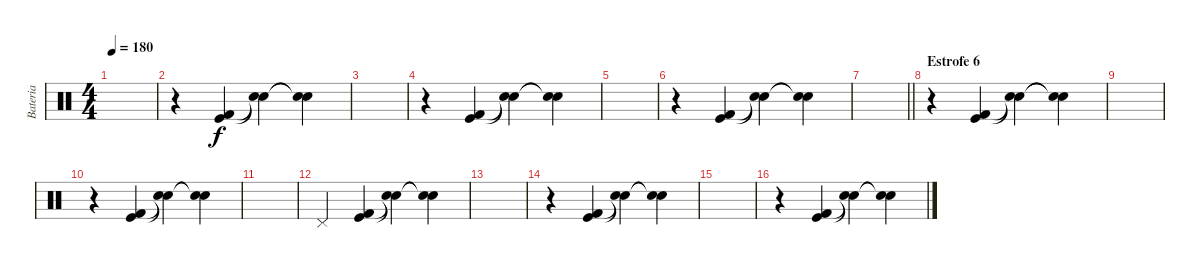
\track ("Bateria" "Bateria") {instrument percussion}
\staff {score}
\articulation defaults
\ts (4 4)
\tempo 180
\clef neutral
\ks c
|
r.4 ("Kick (hit) 2" "Kick (hit)").4 ("Snare (hit)"{t} "Snare (hit)"{t}).4 ("Snare (hit)"{t} "Snare (hit)"{t}).4 |
|
r.4 ("Kick (hit) 2" "Kick (hit)").4 ("Snare (hit)"{t} "Snare (hit)"{t}).4 ("Snare (hit)"{t} "Snare (hit)"{t}).4 |
|
r.4 ("Kick (hit) 2" "Kick (hit)").4 ("Snare (hit)"{t} "Snare (hit)"{t}).4 ("Snare (hit)"{t} "Snare (hit)"{t}).4 |
\barLineRight lightlight
|
\section ("" "Estrofe 6")
r.4 ("Kick (hit) 2" "Kick (hit)").4 ("Snare (hit)"{t} "Snare (hit)"{t}).4 ("Snare (hit)"{t} "Snare (hit)"{t}).4 |
|
r.4 ("Kick (hit) 2" "Kick (hit)").4 ("Snare (hit)"{t} "Snare (hit)"{t}).4 ("Snare (hit)"{t} "Snare (hit)"{t}).4 |
|
"Pedal Hi-Hat (hit)".4 ("Kick (hit) 2" "Kick (hit)").4 ("Snare (hit)"{t} "Snare (hit)"{t}).4 ("Snare (hit)"{t} "Snare (hit)"{t}).4 |
|
r.4 ("Kick (hit) 2" "Kick (hit)").4 ("Snare (hit)"{t} "Snare (hit)"{t}).4 ("Snare (hit)"{t} "Snare (hit)"{t}).4 |
|
r.4 ("Kick (hit) 2" "Kick (hit)").4 ("Snare (hit)"{t} "Snare (hit)"{t}).4 ("Snare (hit)"{t} "Snare (hit)"{t}).4
